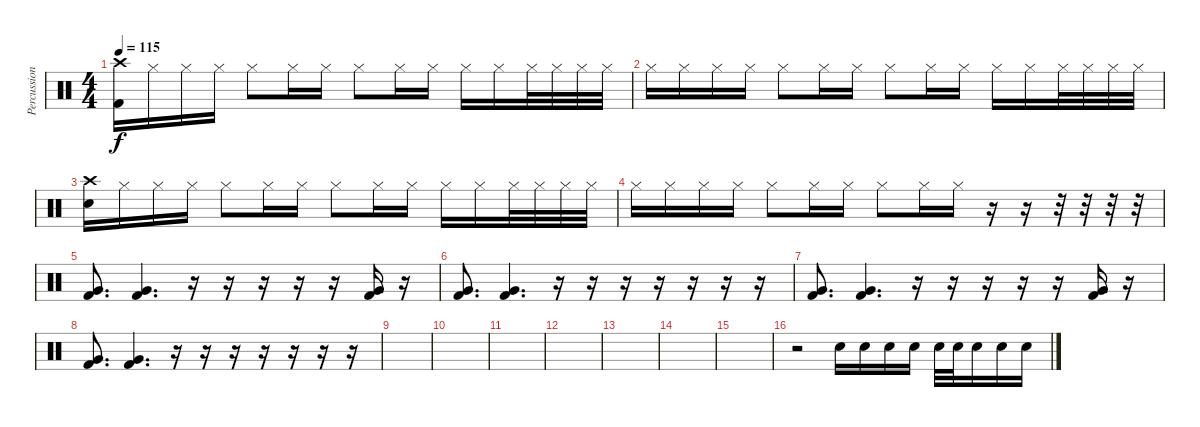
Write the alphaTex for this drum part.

\track ("Percussion" "Percussion") {instrument percussion}
\staff {score}
\articulation defaults
\ts (4 4)
\tempo 115
\clef neutral
\ks c
("Crash high (hit)" "Kick (hit) 2").16{dy f} "Hi-Hat (closed)".16 "Hi-Hat (closed)".16 "Hi-Hat (closed)".16 "Hi-Hat (closed)".8 "Hi-Hat (closed)".16 "Hi-Hat (closed)".16 "Hi-Hat (closed)".8 "Hi-Hat (closed)".16 "Hi-Hat (closed)".16 "Hi-Hat (closed)".16 "Hi-Hat (closed)".16 "Hi-Hat (closed)".32 "Hi-Hat (closed)".32 "Hi-Hat (closed)".32 "Hi-Hat (closed)".32 |
"Hi-Hat (closed)".16 "Hi-Hat (closed)".16 "Hi-Hat (closed)".16 "Hi-Hat (closed)".16 "Hi-Hat (closed)".8 "Hi-Hat (closed)".16 "Hi-Hat (closed)".16 "Hi-Hat (closed)".8 "Hi-Hat (closed)".16 "Hi-Hat (closed)".16 "Hi-Hat (closed)".16 "Hi-Hat (closed)".16 "Hi-Hat (closed)".32 "Hi-Hat (closed)".32 "Hi-Hat (closed)".32 "Hi-Hat (closed)".32 |
("Crash high (hit)" "Snare (hit) 2").16 "Hi-Hat (closed)".16 "Hi-Hat (closed)".16 "Hi-Hat (closed)".16 "Hi-Hat (closed)".8 "Hi-Hat (closed)".16 "Hi-Hat (closed)".16 "Hi-Hat (closed)".8 "Hi-Hat (closed)".16 "Hi-Hat (closed)".16 "Hi-Hat (closed)".16 "Hi-Hat (closed)".16 "Hi-Hat (closed)".32 "Hi-Hat (closed)".32 "Hi-Hat (closed)".32 "Hi-Hat (closed)".32 |
"Hi-Hat (closed)".16 "Hi-Hat (closed)".16 "Hi-Hat (closed)".16 "Hi-Hat (closed)".16 "Hi-Hat (closed)".8 "Hi-Hat (closed)".16 "Hi-Hat (closed)".16 "Hi-Hat (closed)".8 "Hi-Hat (closed)".16 "Hi-Hat (closed)".16 r.16 r.16 r.32 r.32 r.32 r.32 |
("Very Low Tom (hit)" "Kick (hit) 2").8{d} ("Very Low Tom (hit)" "Kick (hit) 2").4{d} r.16 r.16 r.16 r.16 r.16 ("Very Low Tom (hit)" "Kick (hit) 2").16 r.16 |
("Very Low Tom (hit)" "Kick (hit) 2").8{d} ("Very Low Tom (hit)" "Kick (hit) 2").4{d} r.16 r.16 r.16 r.16 r.16 r.16 r.16 |
("Very Low Tom (hit)" "Kick (hit) 2").8{d} ("Very Low Tom (hit)" "Kick (hit) 2").4{d} r.16 r.16 r.16 r.16 r.16 ("Very Low Tom (hit)" "Kick (hit) 2").16 r.16 |
("Very Low Tom (hit)" "Kick (hit) 2").8{d} ("Very Low Tom (hit)" "Kick (hit) 2").4{d} r.16 r.16 r.16 r.16 r.16 r.16 r.16 |
|
|
|
|
|
|
|
r.2 "Snare (hit) 2".16 "Snare (hit) 2".16 "Snare (hit) 2".16 "Snare (hit) 2".16 "Snare (hit) 2".32 "Snare (hit) 2".32 "Snare (hit) 2".16 "Snare (hit) 2".16 "Snare (hit) 2".16
